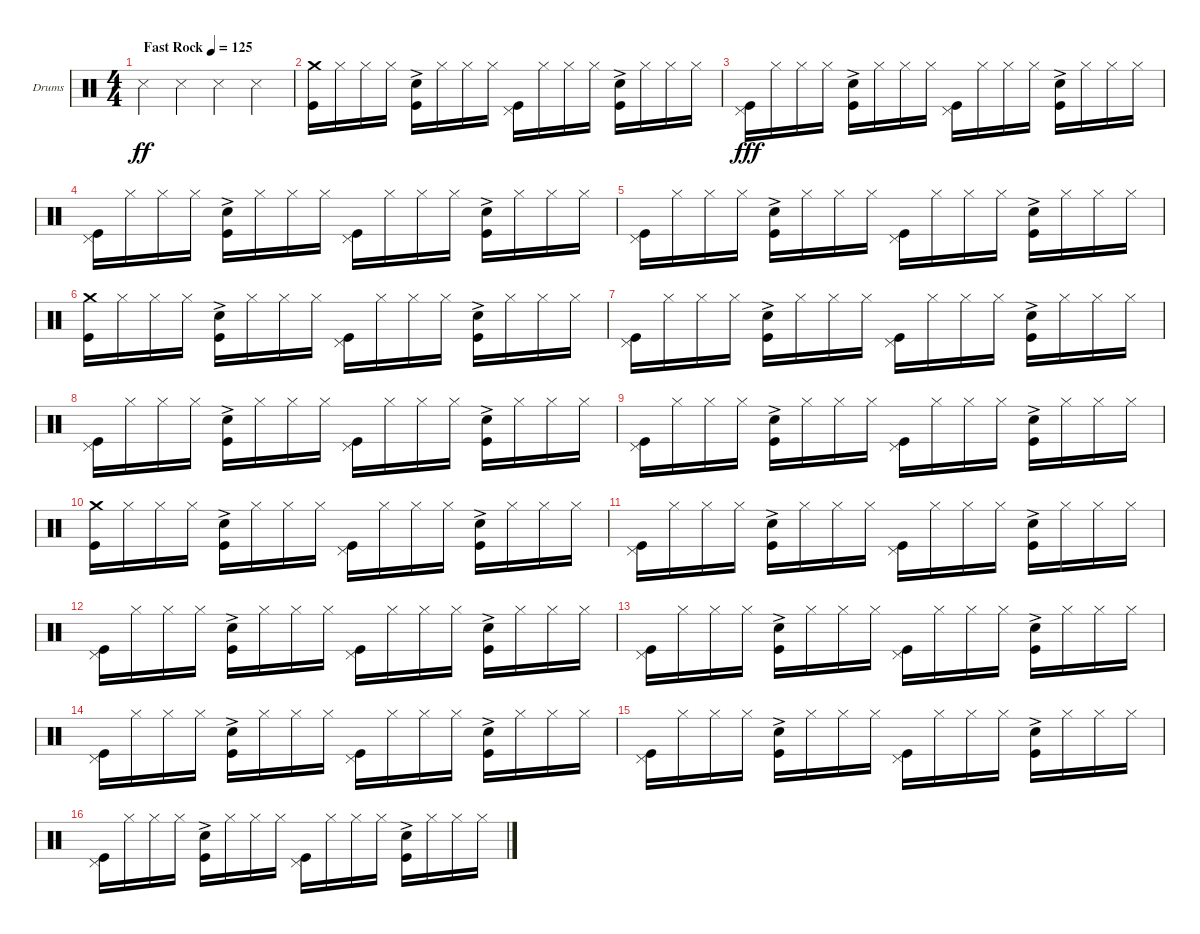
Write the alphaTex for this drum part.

\bracketExtendMode groupsimilarinstruments
\firstSystemTrackNameOrientation horizontal
\otherSystemsTrackNameOrientation horizontal
\track ("Ударники Григорий Гурьянов" "Drums") {instrument percussion}
\staff {score}
\articulation defaults
\ts (4 4)
\beaming (8 2 2 2 2)
\tempo (125 "Fast Rock")
\clef neutral
\ks c "Snare (side stick) 3".4{dy ff} "Snare (side stick) 3".4 "Snare (side stick) 3".4 "Snare (side stick) 3".4
|
("Crash medium (hit)" "Kick (hit)").16 "Hi-Hat (closed)".16 "Hi-Hat (closed)".16 "Hi-Hat (closed)".16 ("Snare (hit) 2"{ac} "Kick (hit)").16 "Hi-Hat (closed)".16 "Hi-Hat (closed)".16 "Hi-Hat (closed)".16 ("Pedal Hi-Hat (hit)" "Kick (hit)").16 "Hi-Hat (closed)".16 "Hi-Hat (closed)".16 "Hi-Hat (closed)".16 ("Snare (hit) 2"{ac} "Kick (hit)"{ac}).16 "Hi-Hat (closed)".16 "Hi-Hat (closed)".16 "Hi-Hat (closed)".16 |
("Pedal Hi-Hat (hit)" "Kick (hit)").16{dy fff} "Hi-Hat (closed)".16 "Hi-Hat (closed)".16 "Hi-Hat (closed)".16 ("Snare (hit) 2"{ac} "Kick (hit)"{ac}).16 "Hi-Hat (closed)".16 "Hi-Hat (closed)".16 "Hi-Hat (closed)".16 ("Pedal Hi-Hat (hit)" "Kick (hit)").16 "Hi-Hat (closed)".16 "Hi-Hat (closed)".16 "Hi-Hat (closed)".16 ("Snare (hit) 2"{ac} "Kick (hit)").16 "Hi-Hat (closed)".16 "Hi-Hat (closed)".16 "Hi-Hat (closed)".16 |
("Pedal Hi-Hat (hit)" "Kick (hit)").16 "Hi-Hat (closed)".16 "Hi-Hat (closed)".16 "Hi-Hat (closed)".16 ("Snare (hit) 2"{ac} "Kick (hit)").16 "Hi-Hat (closed)".16 "Hi-Hat (closed)".16 "Hi-Hat (closed)".16 ("Pedal Hi-Hat (hit)" "Kick (hit)").16 "Hi-Hat (closed)".16 "Hi-Hat (closed)".16 "Hi-Hat (closed)".16 ("Snare (hit) 2"{ac} "Kick (hit)").16 "Hi-Hat (closed)".16 "Hi-Hat (closed)".16 "Hi-Hat (closed)".16 |
("Pedal Hi-Hat (hit)" "Kick (hit)").16 "Hi-Hat (closed)".16 "Hi-Hat (closed)".16 "Hi-Hat (closed)".16 ("Snare (hit) 2"{ac} "Kick (hit)").16 "Hi-Hat (closed)".16 "Hi-Hat (closed)".16 "Hi-Hat (closed)".16 ("Pedal Hi-Hat (hit)" "Kick (hit)").16 "Hi-Hat (closed)".16 "Hi-Hat (closed)".16 "Hi-Hat (closed)".16 ("Snare (hit) 2"{ac} "Kick (hit)").16 "Hi-Hat (closed)".16 "Hi-Hat (closed)".16 "Hi-Hat (closed)".16 |
("Crash medium (hit)" "Kick (hit)").16 "Hi-Hat (closed)".16 "Hi-Hat (closed)".16 "Hi-Hat (closed)".16 ("Snare (hit) 2"{ac} "Kick (hit)").16 "Hi-Hat (closed)".16 "Hi-Hat (closed)".16 "Hi-Hat (closed)".16 ("Pedal Hi-Hat (hit)" "Kick (hit)").16 "Hi-Hat (closed)".16 "Hi-Hat (closed)".16 "Hi-Hat (closed)".16 ("Snare (hit) 2"{ac} "Kick (hit)").16 "Hi-Hat (closed)".16 "Hi-Hat (closed)".16 "Hi-Hat (closed)".16 |
("Pedal Hi-Hat (hit)" "Kick (hit)").16 "Hi-Hat (closed)".16 "Hi-Hat (closed)".16 "Hi-Hat (closed)".16 ("Snare (hit) 2"{ac} "Kick (hit)").16 "Hi-Hat (closed)".16 "Hi-Hat (closed)".16 "Hi-Hat (closed)".16 ("Pedal Hi-Hat (hit)" "Kick (hit)").16 "Hi-Hat (closed)".16 "Hi-Hat (closed)".16 "Hi-Hat (closed)".16 ("Snare (hit) 2"{ac} "Kick (hit)").16 "Hi-Hat (closed)".16 "Hi-Hat (closed)".16 "Hi-Hat (closed)".16 |
("Pedal Hi-Hat (hit)" "Kick (hit)").16 "Hi-Hat (closed)".16 "Hi-Hat (closed)".16 "Hi-Hat (closed)".16 ("Snare (hit) 2"{ac} "Kick (hit)").16 "Hi-Hat (closed)".16 "Hi-Hat (closed)".16 "Hi-Hat (closed)".16 ("Pedal Hi-Hat (hit)" "Kick (hit)").16 "Hi-Hat (closed)".16 "Hi-Hat (closed)".16 "Hi-Hat (closed)".16 ("Snare (hit) 2"{ac} "Kick (hit)").16 "Hi-Hat (closed)".16 "Hi-Hat (closed)".16 "Hi-Hat (closed)".16 |
("Pedal Hi-Hat (hit)" "Kick (hit)").16 "Hi-Hat (closed)".16 "Hi-Hat (closed)".16 "Hi-Hat (closed)".16 ("Snare (hit) 2"{ac} "Kick (hit)").16 "Hi-Hat (closed)".16 "Hi-Hat (closed)".16 "Hi-Hat (closed)".16 ("Pedal Hi-Hat (hit)" "Kick (hit)").16 "Hi-Hat (closed)".16 "Hi-Hat (closed)".16 "Hi-Hat (closed)".16 ("Snare (hit) 2"{ac} "Kick (hit)").16 "Hi-Hat (closed)".16 "Hi-Hat (closed)".16 "Hi-Hat (closed)".16 |
("Crash medium (hit)" "Kick (hit)").16 "Hi-Hat (closed)".16 "Hi-Hat (closed)".16 "Hi-Hat (closed)".16 ("Snare (hit) 2"{ac} "Kick (hit)").16 "Hi-Hat (closed)".16 "Hi-Hat (closed)".16 "Hi-Hat (closed)".16 ("Pedal Hi-Hat (hit)" "Kick (hit)").16 "Hi-Hat (closed)".16 "Hi-Hat (closed)".16 "Hi-Hat (closed)".16 ("Snare (hit) 2"{ac} "Kick (hit)").16 "Hi-Hat (closed)".16 "Hi-Hat (closed)".16 "Hi-Hat (closed)".16 |
("Pedal Hi-Hat (hit)" "Kick (hit)").16 "Hi-Hat (closed)".16 "Hi-Hat (closed)".16 "Hi-Hat (closed)".16 ("Snare (hit) 2"{ac} "Kick (hit)").16 "Hi-Hat (closed)".16 "Hi-Hat (closed)".16 "Hi-Hat (closed)".16 ("Pedal Hi-Hat (hit)" "Kick (hit)").16 "Hi-Hat (closed)".16 "Hi-Hat (closed)".16 "Hi-Hat (closed)".16 ("Snare (hit) 2"{ac} "Kick (hit)").16 "Hi-Hat (closed)".16 "Hi-Hat (closed)".16 "Hi-Hat (closed)".16 |
("Pedal Hi-Hat (hit)" "Kick (hit)").16 "Hi-Hat (closed)".16 "Hi-Hat (closed)".16 "Hi-Hat (closed)".16 ("Snare (hit) 2"{ac} "Kick (hit)").16 "Hi-Hat (closed)".16 "Hi-Hat (closed)".16 "Hi-Hat (closed)".16 ("Pedal Hi-Hat (hit)" "Kick (hit)").16 "Hi-Hat (closed)".16 "Hi-Hat (closed)".16 "Hi-Hat (closed)".16 ("Snare (hit) 2"{ac} "Kick (hit)").16 "Hi-Hat (closed)".16 "Hi-Hat (closed)".16 "Hi-Hat (closed)".16 |
("Pedal Hi-Hat (hit)" "Kick (hit)").16 "Hi-Hat (closed)".16 "Hi-Hat (closed)".16 "Hi-Hat (closed)".16 ("Snare (hit) 2"{ac} "Kick (hit)").16 "Hi-Hat (closed)".16 "Hi-Hat (closed)".16 "Hi-Hat (closed)".16 ("Pedal Hi-Hat (hit)" "Kick (hit)").16 "Hi-Hat (closed)".16 "Hi-Hat (closed)".16 "Hi-Hat (closed)".16 ("Snare (hit) 2"{ac} "Kick (hit)").16 "Hi-Hat (closed)".16 "Hi-Hat (closed)".16 "Hi-Hat (closed)".16 |
("Pedal Hi-Hat (hit)" "Kick (hit)").16 "Hi-Hat (closed)".16 "Hi-Hat (closed)".16 "Hi-Hat (closed)".16 ("Snare (hit) 2"{ac} "Kick (hit)").16 "Hi-Hat (closed)".16 "Hi-Hat (closed)".16 "Hi-Hat (closed)".16 ("Pedal Hi-Hat (hit)" "Kick (hit)").16 "Hi-Hat (closed)".16 "Hi-Hat (closed)".16 "Hi-Hat (closed)".16 ("Snare (hit) 2"{ac} "Kick (hit)").16 "Hi-Hat (closed)".16 "Hi-Hat (closed)".16 "Hi-Hat (closed)".16 |
("Pedal Hi-Hat (hit)" "Kick (hit)").16 "Hi-Hat (closed)".16 "Hi-Hat (closed)".16 "Hi-Hat (closed)".16 ("Snare (hit) 2"{ac} "Kick (hit)").16 "Hi-Hat (closed)".16 "Hi-Hat (closed)".16 "Hi-Hat (closed)".16 ("Pedal Hi-Hat (hit)" "Kick (hit)").16 "Hi-Hat (closed)".16 "Hi-Hat (closed)".16 "Hi-Hat (closed)".16 ("Snare (hit) 2"{ac} "Kick (hit)").16 "Hi-Hat (closed)".16 "Hi-Hat (closed)".16 "Hi-Hat (closed)".16 |
("Pedal Hi-Hat (hit)" "Kick (hit)").16 "Hi-Hat (closed)".16 "Hi-Hat (closed)".16 "Hi-Hat (closed)".16 ("Snare (hit) 2"{ac} "Kick (hit)").16 "Hi-Hat (closed)".16 "Hi-Hat (closed)".16 "Hi-Hat (closed)".16 ("Pedal Hi-Hat (hit)" "Kick (hit)").16 "Hi-Hat (closed)".16 "Hi-Hat (closed)".16 "Hi-Hat (closed)".16 ("Snare (hit) 2"{ac} "Kick (hit)").16 "Hi-Hat (closed)".16 "Hi-Hat (closed)".16 "Hi-Hat (closed)".16
